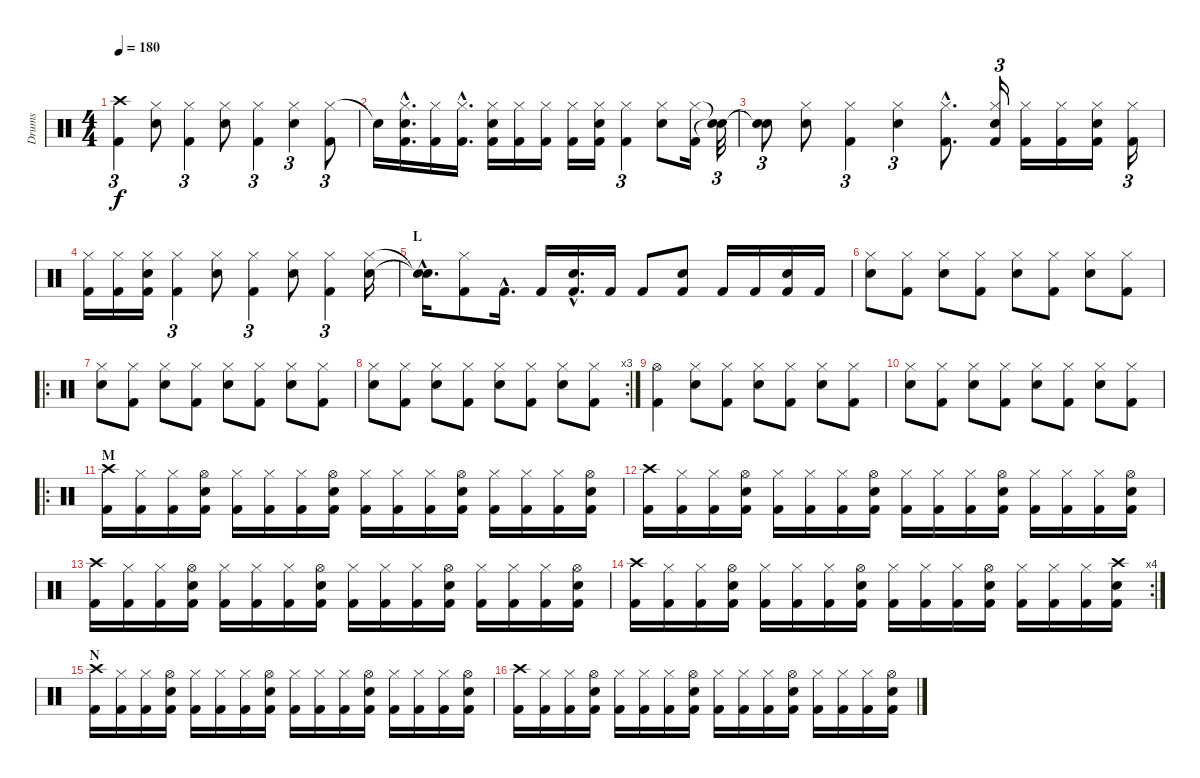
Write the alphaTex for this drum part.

\track ("Drums" "Drums") {instrument percussion}
\staff {score}
\articulation defaults
\ts (4 4)
\tempo 180
\clef neutral
\ks c
("Kick (hit) 2" "Crash high (hit)").4{tu (3 2) dy f} ("Hi-Hat (closed)" "Snare (hit) 2").8 ("Hi-Hat (closed)" "Kick (hit) 2").4{tu (3 2)} ("Hi-Hat (closed)" "Snare (hit) 2").8 ("Kick (hit) 2" "Hi-Hat (closed)").4{tu (3 2)} ("Hi-Hat (closed)" "Snare (hit) 2").4{tu (3 2)} ("Hi-Hat (closed)" "Kick (hit) 2").8{tu (3 2)} |
"Snare (hit)"{t}.16 ("Hi-Hat (closed)"{hac} "Snare (hit) 2"{hac} "Kick (hit) 2"{hac}).16{d} ("Hi-Hat (closed)" "Kick (hit) 2").16 ("Hi-Hat (closed)"{hac} "Kick (hit) 2"{hac}).16{d} ("Hi-Hat (closed)" "Snare (hit) 2" "Kick (hit) 2").16 ("Hi-Hat (closed)" "Kick (hit) 2").16 ("Hi-Hat (closed)" "Kick (hit) 2").16 ("Hi-Hat (closed)" "Kick (hit) 2").16 ("Hi-Hat (closed)" "Snare (hit) 2" "Kick (hit) 2").16 ("Hi-Hat (closed)" "Kick (hit) 2").4{tu (3 2)} ("Snare (hit) 2" "Hi-Hat (closed)").8 ("Kick (hit) 2" "Hi-Hat (closed)").16 ("Snare (hit)"{t} "Snare (hit)"{t}).32{tu (3 2)} |
("Snare (hit)"{t} "Snare (hit)"{t}).8{tu (3 2)} ("Snare (hit) 2" "Hi-Hat (closed)").8 ("Hi-Hat (closed)" "Kick (hit) 2").4{tu (3 2)} ("Snare (hit) 2" "Hi-Hat (closed)").4{tu (3 2)} ("Hi-Hat (closed)"{hac} "Kick (hit) 2"{hac}).8{d} ("Hi-Hat (closed)" "Snare (hit) 2" "Kick (hit) 2").16{tu (3 2)} ("Hi-Hat (closed)" "Kick (hit) 2").16 ("Hi-Hat (closed)" "Kick (hit) 2").16 ("Hi-Hat (closed)" "Snare (hit) 2" "Kick (hit) 2").16 ("Hi-Hat (closed)" "Kick (hit) 2").16{tu (3 2)} |
("Hi-Hat (closed)" "Kick (hit) 2").16 ("Hi-Hat (closed)" "Kick (hit) 2").16 ("Hi-Hat (closed)" "Snare (hit) 2" "Kick (hit) 2").16 ("Kick (hit) 2" "Hi-Hat (closed)").4{tu (3 2)} ("Hi-Hat (closed)" "Snare (hit) 2").8 ("Kick (hit) 2" "Hi-Hat (closed)").4{tu (3 2)} ("Hi-Hat (closed)" "Snare (hit) 2").8 ("Hi-Hat (closed)" "Kick (hit) 2").4{tu (3 2)} ("Snare (hit) 2" "Hi-Hat (closed)").16 |
\section ("" "L")
("Snare (hit)"{hac t} "Snare (hit)"{hac t}).16{d} ("Kick (hit) 2" "Hi-Hat (closed)").8 "Kick (hit) 2"{hac}.16{d} "Kick (hit) 2".16 ("Snare (hit) 2"{hac} "Kick (hit) 2"{hac}).16{d} "Kick (hit) 2".16 "Kick (hit) 2".8 ("Snare (hit) 2" "Kick (hit) 2").8 "Kick (hit) 2".16 "Kick (hit) 2".16 ("Snare (hit) 2" "Kick (hit) 2").16 "Kick (hit) 2".16 |
("Snare (hit) 2" "Hi-Hat (closed)").8 ("Kick (hit) 2" "Hi-Hat (closed)").8 ("Snare (hit) 2" "Hi-Hat (closed)").8 ("Kick (hit) 2" "Hi-Hat (closed)").8 ("Snare (hit) 2" "Hi-Hat (closed)").8 ("Kick (hit) 2" "Hi-Hat (closed)").8 ("Snare (hit) 2" "Hi-Hat (closed)").8 ("Kick (hit) 2" "Hi-Hat (closed)").8 |
\ro
("Snare (hit) 2" "Hi-Hat (closed)").8 ("Kick (hit) 2" "Hi-Hat (closed)").8 ("Snare (hit) 2" "Hi-Hat (closed)").8 ("Kick (hit) 2" "Hi-Hat (closed)").8 ("Snare (hit) 2" "Hi-Hat (closed)").8 ("Kick (hit) 2" "Hi-Hat (closed)").8 ("Snare (hit) 2" "Hi-Hat (closed)").8 ("Kick (hit) 2" "Hi-Hat (closed)").8 |
\rc 3
("Snare (hit) 2" "Hi-Hat (closed)").8 ("Kick (hit) 2" "Hi-Hat (closed)").8 ("Snare (hit) 2" "Hi-Hat (closed)").8 ("Kick (hit) 2" "Hi-Hat (closed)").8 ("Snare (hit) 2" "Hi-Hat (closed)").8 ("Kick (hit) 2" "Hi-Hat (closed)").8 ("Snare (hit) 2" "Hi-Hat (closed)").8 ("Kick (hit) 2" "Hi-Hat (closed)").8 |
("Hi-Hat (open)" "Kick (hit) 2").4 ("Snare (hit) 2" "Hi-Hat (closed)").8 ("Hi-Hat (closed)" "Kick (hit) 2").8 ("Snare (hit) 2" "Hi-Hat (closed)").8 ("Kick (hit) 2" "Hi-Hat (closed)").8 ("Snare (hit) 2" "Hi-Hat (closed)").8 ("Kick (hit) 2" "Hi-Hat (closed)").8 |
("Snare (hit) 2" "Hi-Hat (closed)").8 ("Kick (hit) 2" "Hi-Hat (closed)").8 ("Snare (hit) 2" "Hi-Hat (closed)").8 ("Kick (hit) 2" "Hi-Hat (closed)").8 ("Snare (hit) 2" "Hi-Hat (closed)").8 ("Kick (hit) 2" "Hi-Hat (closed)").8 ("Snare (hit) 2" "Hi-Hat (closed)").8 ("Kick (hit) 2" "Hi-Hat (closed)").8 |
\ro
\section ("" "M")
("Crash high (hit)" "Kick (hit) 2").16 ("Hi-Hat (closed)" "Kick (hit) 2").16 ("Hi-Hat (closed)" "Kick (hit) 2").16 ("Hi-Hat (open)" "Snare (hit) 2" "Kick (hit) 2").16 ("Hi-Hat (closed)" "Kick (hit) 2").16 ("Hi-Hat (closed)" "Kick (hit) 2").16 ("Hi-Hat (closed)" "Kick (hit) 2").16 ("Hi-Hat (open)" "Snare (hit) 2" "Kick (hit) 2").16 ("Hi-Hat (closed)" "Kick (hit) 2").16 ("Hi-Hat (closed)" "Kick (hit) 2").16 ("Hi-Hat (closed)" "Kick (hit) 2").16 ("Hi-Hat (open)" "Snare (hit) 2" "Kick (hit) 2").16 ("Hi-Hat (closed)" "Kick (hit) 2").16 ("Hi-Hat (closed)" "Kick (hit) 2").16 ("Hi-Hat (closed)" "Kick (hit) 2").16 ("Hi-Hat (open)" "Snare (hit) 2" "Kick (hit) 2").16 |
("Crash high (hit)" "Kick (hit) 2").16 ("Hi-Hat (closed)" "Kick (hit) 2").16 ("Hi-Hat (closed)" "Kick (hit) 2").16 ("Hi-Hat (open)" "Snare (hit) 2" "Kick (hit) 2").16 ("Hi-Hat (closed)" "Kick (hit) 2").16 ("Hi-Hat (closed)" "Kick (hit) 2").16 ("Hi-Hat (closed)" "Kick (hit) 2").16 ("Hi-Hat (open)" "Snare (hit) 2" "Kick (hit) 2").16 ("Hi-Hat (closed)" "Kick (hit) 2").16 ("Hi-Hat (closed)" "Kick (hit) 2").16 ("Hi-Hat (closed)" "Kick (hit) 2").16 ("Hi-Hat (open)" "Snare (hit) 2" "Kick (hit) 2").16 ("Hi-Hat (closed)" "Kick (hit) 2").16 ("Hi-Hat (closed)" "Kick (hit) 2").16 ("Hi-Hat (closed)" "Kick (hit) 2").16 ("Hi-Hat (open)" "Snare (hit) 2" "Kick (hit) 2").16 |
("Crash high (hit)" "Kick (hit) 2").16 ("Hi-Hat (closed)" "Kick (hit) 2").16 ("Hi-Hat (closed)" "Kick (hit) 2").16 ("Hi-Hat (open)" "Snare (hit) 2" "Kick (hit) 2").16 ("Hi-Hat (closed)" "Kick (hit) 2").16 ("Hi-Hat (closed)" "Kick (hit) 2").16 ("Hi-Hat (closed)" "Kick (hit) 2").16 ("Hi-Hat (open)" "Snare (hit) 2" "Kick (hit) 2").16 ("Hi-Hat (closed)" "Kick (hit) 2").16 ("Hi-Hat (closed)" "Kick (hit) 2").16 ("Hi-Hat (closed)" "Kick (hit) 2").16 ("Hi-Hat (open)" "Snare (hit) 2" "Kick (hit) 2").16 ("Hi-Hat (closed)" "Kick (hit) 2").16 ("Hi-Hat (closed)" "Kick (hit) 2").16 ("Hi-Hat (closed)" "Kick (hit) 2").16 ("Hi-Hat (open)" "Snare (hit) 2" "Kick (hit) 2").16 |
\rc 4
("Crash high (hit)" "Kick (hit) 2").16 ("Hi-Hat (closed)" "Kick (hit) 2").16 ("Hi-Hat (closed)" "Kick (hit) 2").16 ("Hi-Hat (open)" "Snare (hit) 2" "Kick (hit) 2").16 ("Hi-Hat (closed)" "Kick (hit) 2").16 ("Hi-Hat (closed)" "Kick (hit) 2").16 ("Hi-Hat (closed)" "Kick (hit) 2").16 ("Hi-Hat (open)" "Snare (hit) 2" "Kick (hit) 2").16 ("Hi-Hat (closed)" "Kick (hit) 2").16 ("Hi-Hat (closed)" "Kick (hit) 2").16 ("Hi-Hat (closed)" "Kick (hit) 2").16 ("Hi-Hat (open)" "Snare (hit) 2" "Kick (hit) 2").16 ("Hi-Hat (closed)" "Kick (hit) 2").16 ("Hi-Hat (closed)" "Kick (hit) 2").16 ("Hi-Hat (closed)" "Kick (hit) 2").16 ("Crash high (hit)" "Snare (hit) 2" "Kick (hit) 2").16 |
\section ("" "N")
("Crash high (hit)" "Kick (hit) 2").16 ("Hi-Hat (closed)" "Kick (hit) 2").16 ("Hi-Hat (closed)" "Kick (hit) 2").16 ("Hi-Hat (open)" "Snare (hit) 2" "Kick (hit) 2").16 ("Hi-Hat (closed)" "Kick (hit) 2").16 ("Hi-Hat (closed)" "Kick (hit) 2").16 ("Hi-Hat (closed)" "Kick (hit) 2").16 ("Hi-Hat (open)" "Snare (hit) 2" "Kick (hit) 2").16 ("Hi-Hat (closed)" "Kick (hit) 2").16 ("Hi-Hat (closed)" "Kick (hit) 2").16 ("Hi-Hat (closed)" "Kick (hit) 2").16 ("Hi-Hat (open)" "Snare (hit) 2" "Kick (hit) 2").16 ("Hi-Hat (closed)" "Kick (hit) 2").16 ("Hi-Hat (closed)" "Kick (hit) 2").16 ("Hi-Hat (closed)" "Kick (hit) 2").16 ("Hi-Hat (open)" "Snare (hit) 2" "Kick (hit) 2").16 |
("Crash high (hit)" "Kick (hit) 2").16 ("Hi-Hat (closed)" "Kick (hit) 2").16 ("Hi-Hat (closed)" "Kick (hit) 2").16 ("Hi-Hat (open)" "Snare (hit) 2" "Kick (hit) 2").16 ("Hi-Hat (closed)" "Kick (hit) 2").16 ("Hi-Hat (closed)" "Kick (hit) 2").16 ("Hi-Hat (closed)" "Kick (hit) 2").16 ("Hi-Hat (open)" "Snare (hit) 2" "Kick (hit) 2").16 ("Hi-Hat (closed)" "Kick (hit) 2").16 ("Hi-Hat (closed)" "Kick (hit) 2").16 ("Hi-Hat (closed)" "Kick (hit) 2").16 ("Hi-Hat (open)" "Snare (hit) 2" "Kick (hit) 2").16 ("Hi-Hat (closed)" "Kick (hit) 2").16 ("Hi-Hat (closed)" "Kick (hit) 2").16 ("Hi-Hat (closed)" "Kick (hit) 2").16 ("Hi-Hat (open)" "Snare (hit) 2" "Kick (hit) 2").16
